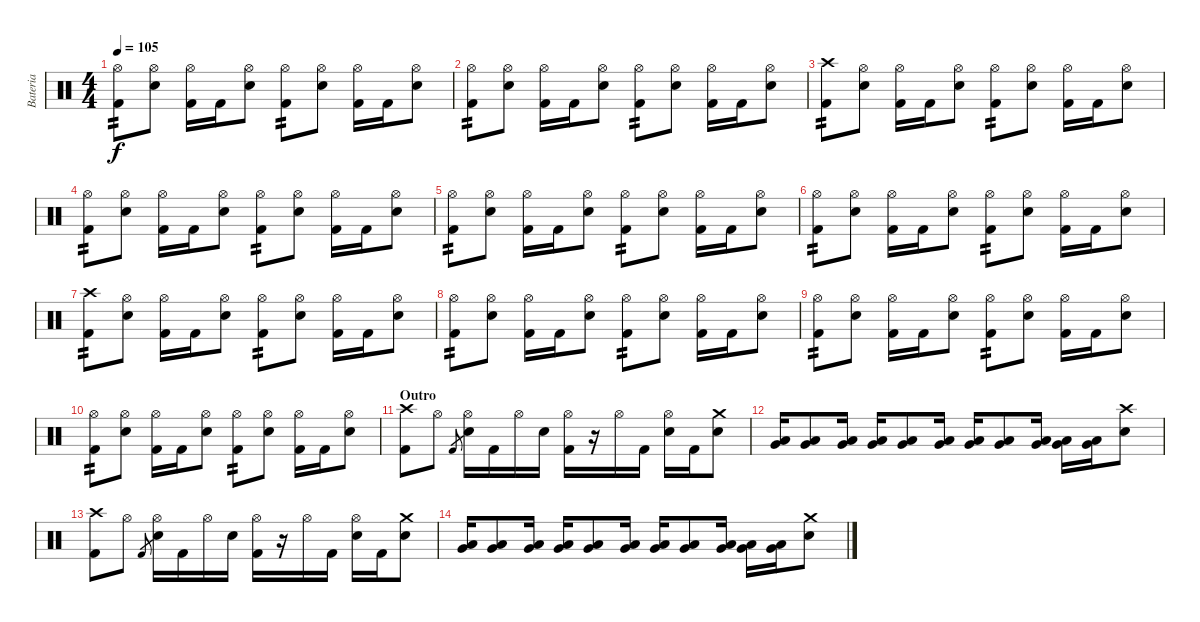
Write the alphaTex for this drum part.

\track ("Bateria" "Bateria") {instrument percussion}
\staff {score}
\articulation defaults
\ts (4 4)
\tempo 105
\clef neutral
\ks c
("Hi-Hat (open)" "Kick (hit) 2").8{tp 2 dy f} ("Hi-Hat (open)" "Electric Snare (hit)").8 ("Hi-Hat (open)" "Kick (hit) 2").16 "Kick (hit) 2".16 ("Hi-Hat (open)" "Electric Snare (hit)").8 ("Hi-Hat (open)" "Kick (hit) 2").8{tp 2} ("Hi-Hat (open)" "Electric Snare (hit)").8 ("Hi-Hat (open)" "Kick (hit) 2").16 "Kick (hit) 2".16 ("Hi-Hat (open)" "Electric Snare (hit)").8 |
("Hi-Hat (open)" "Kick (hit) 2").8{tp 2} ("Hi-Hat (open)" "Electric Snare (hit)").8 ("Hi-Hat (open)" "Kick (hit) 2").16 "Kick (hit) 2".16 ("Hi-Hat (open)" "Electric Snare (hit)").8 ("Hi-Hat (open)" "Kick (hit) 2").8{tp 2} ("Hi-Hat (open)" "Electric Snare (hit)").8 ("Hi-Hat (open)" "Kick (hit) 2").16 "Kick (hit) 2".16 ("Hi-Hat (open)" "Electric Snare (hit)").8 |
("Crash high (hit)" "Kick (hit) 2").8{tp 2} ("Hi-Hat (open)" "Electric Snare (hit)").8 ("Hi-Hat (open)" "Kick (hit) 2").16 "Kick (hit) 2".16 ("Hi-Hat (open)" "Electric Snare (hit)").8 ("Hi-Hat (open)" "Kick (hit) 2").8{tp 2} ("Hi-Hat (open)" "Electric Snare (hit)").8 ("Hi-Hat (open)" "Kick (hit) 2").16 "Kick (hit) 2".16 ("Hi-Hat (open)" "Electric Snare (hit)").8 |
("Hi-Hat (open)" "Kick (hit) 2").8{tp 2} ("Hi-Hat (open)" "Electric Snare (hit)").8 ("Hi-Hat (open)" "Kick (hit) 2").16 "Kick (hit) 2".16 ("Hi-Hat (open)" "Electric Snare (hit)").8 ("Hi-Hat (open)" "Kick (hit) 2").8{tp 2} ("Hi-Hat (open)" "Electric Snare (hit)").8 ("Hi-Hat (open)" "Kick (hit) 2").16 "Kick (hit) 2".16 ("Hi-Hat (open)" "Electric Snare (hit)").8 |
("Hi-Hat (open)" "Kick (hit) 2").8{tp 2} ("Hi-Hat (open)" "Electric Snare (hit)").8 ("Hi-Hat (open)" "Kick (hit) 2").16 "Kick (hit) 2".16 ("Hi-Hat (open)" "Electric Snare (hit)").8 ("Hi-Hat (open)" "Kick (hit) 2").8{tp 2} ("Hi-Hat (open)" "Electric Snare (hit)").8 ("Hi-Hat (open)" "Kick (hit) 2").16 "Kick (hit) 2".16 ("Hi-Hat (open)" "Electric Snare (hit)").8 |
("Hi-Hat (open)" "Kick (hit) 2").8{tp 2} ("Hi-Hat (open)" "Electric Snare (hit)").8 ("Hi-Hat (open)" "Kick (hit) 2").16 "Kick (hit) 2".16 ("Hi-Hat (open)" "Electric Snare (hit)").8 ("Hi-Hat (open)" "Kick (hit) 2").8{tp 2} ("Hi-Hat (open)" "Electric Snare (hit)").8 ("Hi-Hat (open)" "Kick (hit) 2").16 "Kick (hit) 2".16 ("Hi-Hat (open)" "Electric Snare (hit)").8 |
("Crash high (hit)" "Kick (hit) 2").8{tp 2} ("Hi-Hat (open)" "Electric Snare (hit)").8 ("Hi-Hat (open)" "Kick (hit) 2").16 "Kick (hit) 2".16 ("Hi-Hat (open)" "Electric Snare (hit)").8 ("Hi-Hat (open)" "Kick (hit) 2").8{tp 2} ("Hi-Hat (open)" "Electric Snare (hit)").8 ("Hi-Hat (open)" "Kick (hit) 2").16 "Kick (hit) 2".16 ("Hi-Hat (open)" "Electric Snare (hit)").8 |
("Hi-Hat (open)" "Kick (hit) 2").8{tp 2} ("Hi-Hat (open)" "Electric Snare (hit)").8 ("Hi-Hat (open)" "Kick (hit) 2").16 "Kick (hit) 2".16 ("Hi-Hat (open)" "Electric Snare (hit)").8 ("Hi-Hat (open)" "Kick (hit) 2").8{tp 2} ("Hi-Hat (open)" "Electric Snare (hit)").8 ("Hi-Hat (open)" "Kick (hit) 2").16 "Kick (hit) 2".16 ("Hi-Hat (open)" "Electric Snare (hit)").8 |
("Hi-Hat (open)" "Kick (hit) 2").8{tp 2} ("Hi-Hat (open)" "Electric Snare (hit)").8 ("Hi-Hat (open)" "Kick (hit) 2").16 "Kick (hit) 2".16 ("Hi-Hat (open)" "Electric Snare (hit)").8 ("Hi-Hat (open)" "Kick (hit) 2").8{tp 2} ("Hi-Hat (open)" "Electric Snare (hit)").8 ("Hi-Hat (open)" "Kick (hit) 2").16 "Kick (hit) 2".16 ("Hi-Hat (open)" "Electric Snare (hit)").8 |
("Hi-Hat (open)" "Kick (hit) 2").8{tp 2} ("Hi-Hat (open)" "Electric Snare (hit)").8 ("Hi-Hat (open)" "Kick (hit) 2").16 "Kick (hit) 2".16 ("Hi-Hat (open)" "Electric Snare (hit)").8 ("Hi-Hat (open)" "Kick (hit) 2").8{tp 2} ("Hi-Hat (open)" "Electric Snare (hit)").8 ("Hi-Hat (open)" "Kick (hit) 2").16 "Kick (hit) 2".16 ("Hi-Hat (open)" "Electric Snare (hit)").8 |
\section ("" "Outro")
("Crash high (hit)" "Kick (hit) 2").8 "Hi-Hat (open)".8 "Kick (hit) 2".8{gr} ("Hi-Hat (open)" "Electric Snare (hit)").16 "Kick (hit) 2".16 "Hi-Hat (open)".16 "Electric Snare (hit)".16 ("Hi-Hat (open)" "Kick (hit) 2").16 r.16 "Hi-Hat (open)".16 "Kick (hit) 2".16 ("Hi-Hat (open)" "Electric Snare (hit)").16 "Kick (hit) 2".16 ("Electric Snare (hit)" "Crash medium (hit)").8 |
("Very Low Tom (hit)" "Low Floor Tom (hit)").16 ("Very Low Tom (hit)" "Low Floor Tom (hit)").8 ("Very Low Tom (hit)" "Low Floor Tom (hit)").16 ("Very Low Tom (hit)" "Low Floor Tom (hit)").16 ("Very Low Tom (hit)" "Low Floor Tom (hit)").8 ("Very Low Tom (hit)" "Low Floor Tom (hit)").16 ("Very Low Tom (hit)" "Low Floor Tom (hit)").16 ("Very Low Tom (hit)" "Low Floor Tom (hit)").8 ("Very Low Tom (hit)" "Low Floor Tom (hit)").16 ("Very Low Tom (hit)" "Low Floor Tom (hit)").16 ("Very Low Tom (hit)" "Low Floor Tom (hit)").16 ("Electric Snare (hit)" "Crash high (hit)").8 |
("Crash high (hit)" "Kick (hit) 2").8 "Hi-Hat (open)".8 "Kick (hit) 2".8{gr} ("Hi-Hat (open)" "Electric Snare (hit)").16 "Kick (hit) 2".16 "Hi-Hat (open)".16 "Electric Snare (hit)".16 ("Hi-Hat (open)" "Kick (hit) 2").16 r.16 "Hi-Hat (open)".16 "Kick (hit) 2".16 ("Hi-Hat (open)" "Electric Snare (hit)").16 "Kick (hit) 2".16 ("Electric Snare (hit)" "Crash medium (hit)").8 |
("Very Low Tom (hit)" "Low Floor Tom (hit)").16 ("Very Low Tom (hit)" "Low Floor Tom (hit)").8 ("Very Low Tom (hit)" "Low Floor Tom (hit)").16 ("Very Low Tom (hit)" "Low Floor Tom (hit)").16 ("Very Low Tom (hit)" "Low Floor Tom (hit)").8 ("Very Low Tom (hit)" "Low Floor Tom (hit)").16 ("Very Low Tom (hit)" "Low Floor Tom (hit)").16 ("Very Low Tom (hit)" "Low Floor Tom (hit)").8 ("Very Low Tom (hit)" "Low Floor Tom (hit)").16 ("Very Low Tom (hit)" "Low Floor Tom (hit)").16 ("Very Low Tom (hit)" "Low Floor Tom (hit)").16 ("Electric Snare (hit)" "Crash medium (hit)").8
